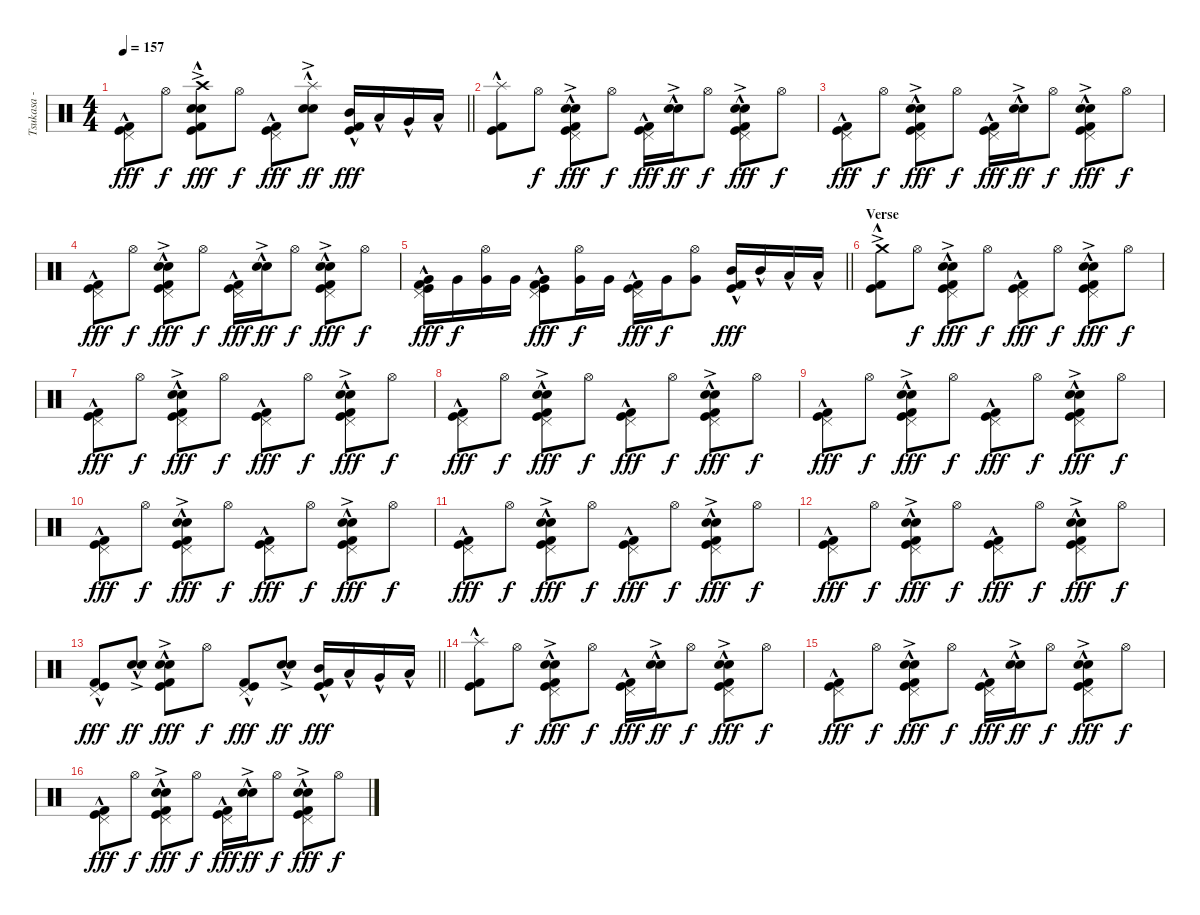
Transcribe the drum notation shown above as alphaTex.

\track ("Tsukasa - Drums" "Tsukasa - ") {instrument percussion}
\staff {score}
\articulation defaults
\ts (4 4)
\tempo 157
\clef neutral
\barLineRight lightlight
\ks c
("Pedal Hi-Hat (hit)" "Kick (hit) 2"{hac} "Kick (hit)"{hac}).8{dy fff} "Hi-Hat (open)".8{dy f} ("Crash high (hit)"{ac} "Electric Snare (hit)"{hac} "Snare (hit) 2"{ac} "Kick (hit) 2"{hac} "Kick (hit)"{hac}).8{dy fff} "Hi-Hat (open)".8{dy f} ("Pedal Hi-Hat (hit)" "Kick (hit) 2"{hac} "Kick (hit)"{hac}).8{dy fff} ("Splash (hit)"{hac} "Electric Snare (hit)"{hac} "Snare (hit) 2"{ac}).8{dy ff} ("Mid Tom (hit)"{hac} "Kick (hit) 2"{hac} "Kick (hit)"{hac}).16{dy fff} "Low Tom (hit)"{hac}.16 "Very Low Tom (hit)"{hac}.16 "Low Floor Tom (hit)"{hac}.16 |
\section ("" "")
("Splash (hit)"{hac} "Kick (hit) 2"{hac} "Kick (hit)"{hac}).8 "Hi-Hat (open)".8{dy f} ("Pedal Hi-Hat (hit)" "Electric Snare (hit)"{hac} "Snare (hit) 2"{ac} "Kick (hit) 2"{hac} "Kick (hit)"{hac}).8{dy fff} "Hi-Hat (open)".8{dy f} ("Pedal Hi-Hat (hit)" "Kick (hit) 2"{hac} "Kick (hit)"{hac}).16{dy fff} ("Electric Snare (hit)"{hac} "Snare (hit) 2"{ac}).16{dy ff} "Hi-Hat (open)".8{dy f} ("Pedal Hi-Hat (hit)" "Electric Snare (hit)"{hac} "Snare (hit) 2"{ac} "Kick (hit) 2"{hac} "Kick (hit)"{hac}).8{dy fff} "Hi-Hat (open)".8{dy f} |
("Pedal Hi-Hat (hit)" "Kick (hit) 2"{hac} "Kick (hit)"{hac}).8{dy fff} "Hi-Hat (open)".8{dy f} ("Pedal Hi-Hat (hit)" "Electric Snare (hit)"{hac} "Snare (hit) 2"{ac} "Kick (hit) 2"{hac} "Kick (hit)"{hac}).8{dy fff} "Hi-Hat (open)".8{dy f} ("Pedal Hi-Hat (hit)" "Kick (hit) 2"{hac} "Kick (hit)"{hac}).16{dy fff} ("Electric Snare (hit)"{hac} "Snare (hit) 2"{ac}).16{dy ff} "Hi-Hat (open)".8{dy f} ("Pedal Hi-Hat (hit)" "Electric Snare (hit)"{hac} "Snare (hit) 2"{ac} "Kick (hit) 2"{hac} "Kick (hit)"{hac}).8{dy fff} "Hi-Hat (open)".8{dy f} |
("Pedal Hi-Hat (hit)" "Kick (hit) 2"{hac} "Kick (hit)"{hac}).8{dy fff} "Hi-Hat (open)".8{dy f} ("Pedal Hi-Hat (hit)" "Electric Snare (hit)"{hac} "Snare (hit) 2"{ac} "Kick (hit) 2"{hac} "Kick (hit)"{hac}).8{dy fff} "Hi-Hat (open)".8{dy f} ("Pedal Hi-Hat (hit)" "Kick (hit) 2"{hac} "Kick (hit)"{hac}).16{dy fff} ("Electric Snare (hit)"{hac} "Snare (hit) 2"{ac}).16{dy ff} "Hi-Hat (open)".8{dy f} ("Pedal Hi-Hat (hit)" "Electric Snare (hit)"{hac} "Snare (hit) 2"{ac} "Kick (hit) 2"{hac} "Kick (hit)"{hac}).8{dy fff} "Hi-Hat (open)".8{dy f} |
\barLineRight lightlight
("Pedal Hi-Hat (hit)" "Very Low Tom (hit)" "Kick (hit) 2"{hac} "Kick (hit)"{hac}).16{dy fff} "Very Low Tom (hit)".16{dy f} ("Hi-Hat (open)" "Very Low Tom (hit)").16 "Very Low Tom (hit)".16 ("Pedal Hi-Hat (hit)" "Very Low Tom (hit)" "Kick (hit) 2"{hac} "Kick (hit)"{hac}).8{dy fff} ("Hi-Hat (open)" "Very Low Tom (hit)").16{dy f} "Very Low Tom (hit)".16 ("Pedal Hi-Hat (hit)" "Kick (hit) 2"{hac} "Kick (hit)"{hac}).16{dy fff} "Very Low Tom (hit)".16{dy f} ("Hi-Hat (open)" "Very Low Tom (hit)").8 ("Mid Tom (hit)"{hac} "Kick (hit) 2"{hac} "Kick (hit)"{hac}).16{dy fff} "Mid Tom (hit)"{hac}.16 "Low Tom (hit)"{hac}.16 "Low Tom (hit)"{hac}.16 |
\section ("" "Verse")
("Crash medium (hit)"{ac} "Kick (hit) 2"{hac} "Kick (hit)"{hac}).8 "Hi-Hat (open)".8{dy f} ("Pedal Hi-Hat (hit)" "Electric Snare (hit)"{hac} "Snare (hit) 2"{ac} "Kick (hit) 2"{hac} "Kick (hit)"{hac}).8{dy fff} "Hi-Hat (open)".8{dy f} ("Pedal Hi-Hat (hit)" "Kick (hit) 2"{hac} "Kick (hit)"{hac}).8{dy fff} "Hi-Hat (open)".8{dy f} ("Pedal Hi-Hat (hit)" "Electric Snare (hit)"{hac} "Snare (hit) 2"{ac} "Kick (hit) 2"{hac} "Kick (hit)"{hac}).8{dy fff} "Hi-Hat (open)".8{dy f} |
("Pedal Hi-Hat (hit)" "Kick (hit) 2"{hac} "Kick (hit)"{hac}).8{dy fff} "Hi-Hat (open)".8{dy f} ("Pedal Hi-Hat (hit)" "Electric Snare (hit)"{hac} "Snare (hit) 2"{ac} "Kick (hit) 2"{hac} "Kick (hit)"{hac}).8{dy fff} "Hi-Hat (open)".8{dy f} ("Pedal Hi-Hat (hit)" "Kick (hit) 2"{hac} "Kick (hit)"{hac}).8{dy fff} "Hi-Hat (open)".8{dy f} ("Pedal Hi-Hat (hit)" "Electric Snare (hit)"{hac} "Snare (hit) 2"{ac} "Kick (hit) 2"{hac} "Kick (hit)"{hac}).8{dy fff} "Hi-Hat (open)".8{dy f} |
("Pedal Hi-Hat (hit)" "Kick (hit) 2"{hac} "Kick (hit)"{hac}).8{dy fff} "Hi-Hat (open)".8{dy f} ("Pedal Hi-Hat (hit)" "Electric Snare (hit)"{hac} "Snare (hit) 2"{ac} "Kick (hit) 2"{hac} "Kick (hit)"{hac}).8{dy fff} "Hi-Hat (open)".8{dy f} ("Pedal Hi-Hat (hit)" "Kick (hit) 2"{hac} "Kick (hit)"{hac}).8{dy fff} "Hi-Hat (open)".8{dy f} ("Pedal Hi-Hat (hit)" "Electric Snare (hit)"{hac} "Snare (hit) 2"{ac} "Kick (hit) 2"{hac} "Kick (hit)"{hac}).8{dy fff} "Hi-Hat (open)".8{dy f} |
("Pedal Hi-Hat (hit)" "Kick (hit) 2"{hac} "Kick (hit)"{hac}).8{dy fff} "Hi-Hat (open)".8{dy f} ("Pedal Hi-Hat (hit)" "Electric Snare (hit)"{hac} "Snare (hit) 2"{ac} "Kick (hit) 2"{hac} "Kick (hit)"{hac}).8{dy fff} "Hi-Hat (open)".8{dy f} ("Pedal Hi-Hat (hit)" "Kick (hit) 2"{hac} "Kick (hit)"{hac}).8{dy fff} "Hi-Hat (open)".8{dy f} ("Pedal Hi-Hat (hit)" "Electric Snare (hit)"{hac} "Snare (hit) 2"{ac} "Kick (hit) 2"{hac} "Kick (hit)"{hac}).8{dy fff} "Hi-Hat (open)".8{dy f} |
("Pedal Hi-Hat (hit)" "Kick (hit) 2"{hac} "Kick (hit)"{hac}).8{dy fff} "Hi-Hat (open)".8{dy f} ("Pedal Hi-Hat (hit)" "Electric Snare (hit)"{hac} "Snare (hit) 2"{ac} "Kick (hit) 2"{hac} "Kick (hit)"{hac}).8{dy fff} "Hi-Hat (open)".8{dy f} ("Pedal Hi-Hat (hit)" "Kick (hit) 2"{hac} "Kick (hit)"{hac}).8{dy fff} "Hi-Hat (open)".8{dy f} ("Pedal Hi-Hat (hit)" "Electric Snare (hit)"{hac} "Snare (hit) 2"{ac} "Kick (hit) 2"{hac} "Kick (hit)"{hac}).8{dy fff} "Hi-Hat (open)".8{dy f} |
("Pedal Hi-Hat (hit)" "Kick (hit) 2"{hac} "Kick (hit)"{hac}).8{dy fff} "Hi-Hat (open)".8{dy f} ("Pedal Hi-Hat (hit)" "Electric Snare (hit)"{hac} "Snare (hit) 2"{ac} "Kick (hit) 2"{hac} "Kick (hit)"{hac}).8{dy fff} "Hi-Hat (open)".8{dy f} ("Pedal Hi-Hat (hit)" "Kick (hit) 2"{hac} "Kick (hit)"{hac}).8{dy fff} "Hi-Hat (open)".8{dy f} ("Pedal Hi-Hat (hit)" "Electric Snare (hit)"{hac} "Snare (hit) 2"{ac} "Kick (hit) 2"{hac} "Kick (hit)"{hac}).8{dy fff} "Hi-Hat (open)".8{dy f} |
("Pedal Hi-Hat (hit)" "Kick (hit) 2"{hac} "Kick (hit)"{hac}).8{dy fff} "Hi-Hat (open)".8{dy f} ("Pedal Hi-Hat (hit)" "Electric Snare (hit)"{hac} "Snare (hit) 2"{ac} "Kick (hit) 2"{hac} "Kick (hit)"{hac}).8{dy fff} "Hi-Hat (open)".8{dy f} ("Pedal Hi-Hat (hit)" "Kick (hit) 2"{hac} "Kick (hit)"{hac}).8{dy fff} "Hi-Hat (open)".8{dy f} ("Pedal Hi-Hat (hit)" "Electric Snare (hit)"{hac} "Snare (hit) 2"{ac} "Kick (hit) 2"{hac} "Kick (hit)"{hac}).8{dy fff} "Hi-Hat (open)".8{dy f} |
\barLineRight lightlight
("Pedal Hi-Hat (hit)" "Kick (hit) 2"{hac} "Kick (hit)"{hac}).8{dy fff} ("Electric Snare (hit)"{hac} "Snare (hit) 2"{ac}).8{dy ff} ("Electric Snare (hit)"{hac} "Snare (hit) 2"{ac} "Kick (hit) 2"{hac} "Kick (hit)"{hac}).8{dy fff} "Hi-Hat (open)".8{dy f} ("Pedal Hi-Hat (hit)" "Kick (hit) 2"{hac} "Kick (hit)"{hac}).8{dy fff} ("Electric Snare (hit)"{hac} "Snare (hit) 2"{ac}).8{dy ff} ("Mid Tom (hit)"{hac} "Kick (hit) 2"{hac} "Kick (hit)"{hac}).16{dy fff} "Low Tom (hit)"{hac}.16 "Very Low Tom (hit)"{hac}.16 "Low Floor Tom (hit)"{hac}.16 |
\section ("" "")
("Splash (hit)"{hac} "Kick (hit) 2"{hac} "Kick (hit)"{hac}).8 "Hi-Hat (open)".8{dy f} ("Pedal Hi-Hat (hit)" "Electric Snare (hit)"{hac} "Snare (hit) 2"{ac} "Kick (hit) 2"{hac} "Kick (hit)"{hac}).8{dy fff} "Hi-Hat (open)".8{dy f} ("Pedal Hi-Hat (hit)" "Kick (hit) 2"{hac} "Kick (hit)"{hac}).16{dy fff} ("Electric Snare (hit)"{hac} "Snare (hit) 2"{ac}).16{dy ff} "Hi-Hat (open)".8{dy f} ("Pedal Hi-Hat (hit)" "Electric Snare (hit)"{hac} "Snare (hit) 2"{ac} "Kick (hit) 2"{hac} "Kick (hit)"{hac}).8{dy fff} "Hi-Hat (open)".8{dy f} |
("Pedal Hi-Hat (hit)" "Kick (hit) 2"{hac} "Kick (hit)"{hac}).8{dy fff} "Hi-Hat (open)".8{dy f} ("Pedal Hi-Hat (hit)" "Electric Snare (hit)"{hac} "Snare (hit) 2"{ac} "Kick (hit) 2"{hac} "Kick (hit)"{hac}).8{dy fff} "Hi-Hat (open)".8{dy f} ("Pedal Hi-Hat (hit)" "Kick (hit) 2"{hac} "Kick (hit)"{hac}).16{dy fff} ("Electric Snare (hit)"{hac} "Snare (hit) 2"{ac}).16{dy ff} "Hi-Hat (open)".8{dy f} ("Pedal Hi-Hat (hit)" "Electric Snare (hit)"{hac} "Snare (hit) 2"{ac} "Kick (hit) 2"{hac} "Kick (hit)"{hac}).8{dy fff} "Hi-Hat (open)".8{dy f} |
("Pedal Hi-Hat (hit)" "Kick (hit) 2"{hac} "Kick (hit)"{hac}).8{dy fff} "Hi-Hat (open)".8{dy f} ("Pedal Hi-Hat (hit)" "Electric Snare (hit)"{hac} "Snare (hit) 2"{ac} "Kick (hit) 2"{hac} "Kick (hit)"{hac}).8{dy fff} "Hi-Hat (open)".8{dy f} ("Pedal Hi-Hat (hit)" "Kick (hit) 2"{hac} "Kick (hit)"{hac}).16{dy fff} ("Electric Snare (hit)"{hac} "Snare (hit) 2"{ac}).16{dy ff} "Hi-Hat (open)".8{dy f} ("Pedal Hi-Hat (hit)" "Electric Snare (hit)"{hac} "Snare (hit) 2"{ac} "Kick (hit) 2"{hac} "Kick (hit)"{hac}).8{dy fff} "Hi-Hat (open)".8{dy f}
